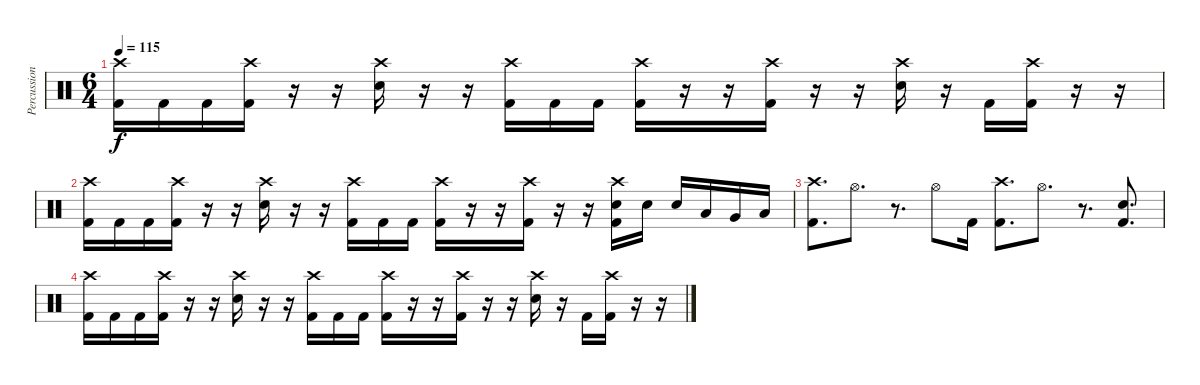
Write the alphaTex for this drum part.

\track ("Percussion" "Percussion") {instrument percussion}
\staff {score}
\articulation defaults
\ts (6 4)
\tempo 115
\clef neutral
\ks c
("Crash high (hit)" "Kick (hit) 2").16{dy f} "Kick (hit) 2".16 "Kick (hit) 2".16 ("Crash high (hit)" "Kick (hit) 2").16 r.16 r.16 ("Crash high (hit)" "Electric Snare (hit)").16 r.16 r.16 ("Crash high (hit)" "Kick (hit) 2").16 "Kick (hit) 2".16 "Kick (hit) 2".16 ("Crash high (hit)" "Kick (hit) 2").16 r.16 r.16 ("Crash high (hit)" "Kick (hit) 2").16 r.16 r.16 ("Crash high (hit)" "Electric Snare (hit)").16 r.16 "Kick (hit) 2".16 ("Crash high (hit)" "Kick (hit) 2").16 r.16 r.16 |
("Crash high (hit)" "Kick (hit) 2").16 "Kick (hit) 2".16 "Kick (hit) 2".16 ("Crash high (hit)" "Kick (hit) 2").16 r.16 r.16 ("Crash high (hit)" "Electric Snare (hit)").16 r.16 r.16 ("Crash high (hit)" "Kick (hit) 2").16 "Kick (hit) 2".16 "Kick (hit) 2".16 ("Crash high (hit)" "Kick (hit) 2").16 r.16 r.16 ("Crash high (hit)" "Kick (hit) 2").16 r.16 r.16 ("Crash high (hit)" "Electric Snare (hit)" "Kick (hit) 2").16 "Electric Snare (hit)".16 "Electric Snare (hit)".16 "Low Tom (hit)".16 "Very Low Tom (hit)".16 "Low Floor Tom (hit)".16 |
("Crash high (hit)" "Kick (hit) 2").8{d} "Hi-Hat (open)".8{d} r.8{d} "Hi-Hat (open)".8 "Kick (hit) 2".16 ("Crash high (hit)" "Kick (hit) 2").8{d} "Hi-Hat (open)".8{d} r.8{d} ("Electric Snare (hit)" "Kick (hit) 2").8{d} |
("Crash high (hit)" "Kick (hit) 2").16 "Kick (hit) 2".16 "Kick (hit) 2".16 ("Crash high (hit)" "Kick (hit) 2").16 r.16 r.16 ("Crash high (hit)" "Electric Snare (hit)").16 r.16 r.16 ("Crash high (hit)" "Kick (hit) 2").16 "Kick (hit) 2".16 "Kick (hit) 2".16 ("Crash high (hit)" "Kick (hit) 2").16 r.16 r.16 ("Crash high (hit)" "Kick (hit) 2").16 r.16 r.16 ("Crash high (hit)" "Electric Snare (hit)").16 r.16 "Kick (hit) 2".16 ("Crash high (hit)" "Kick (hit) 2").16 r.16 r.16
